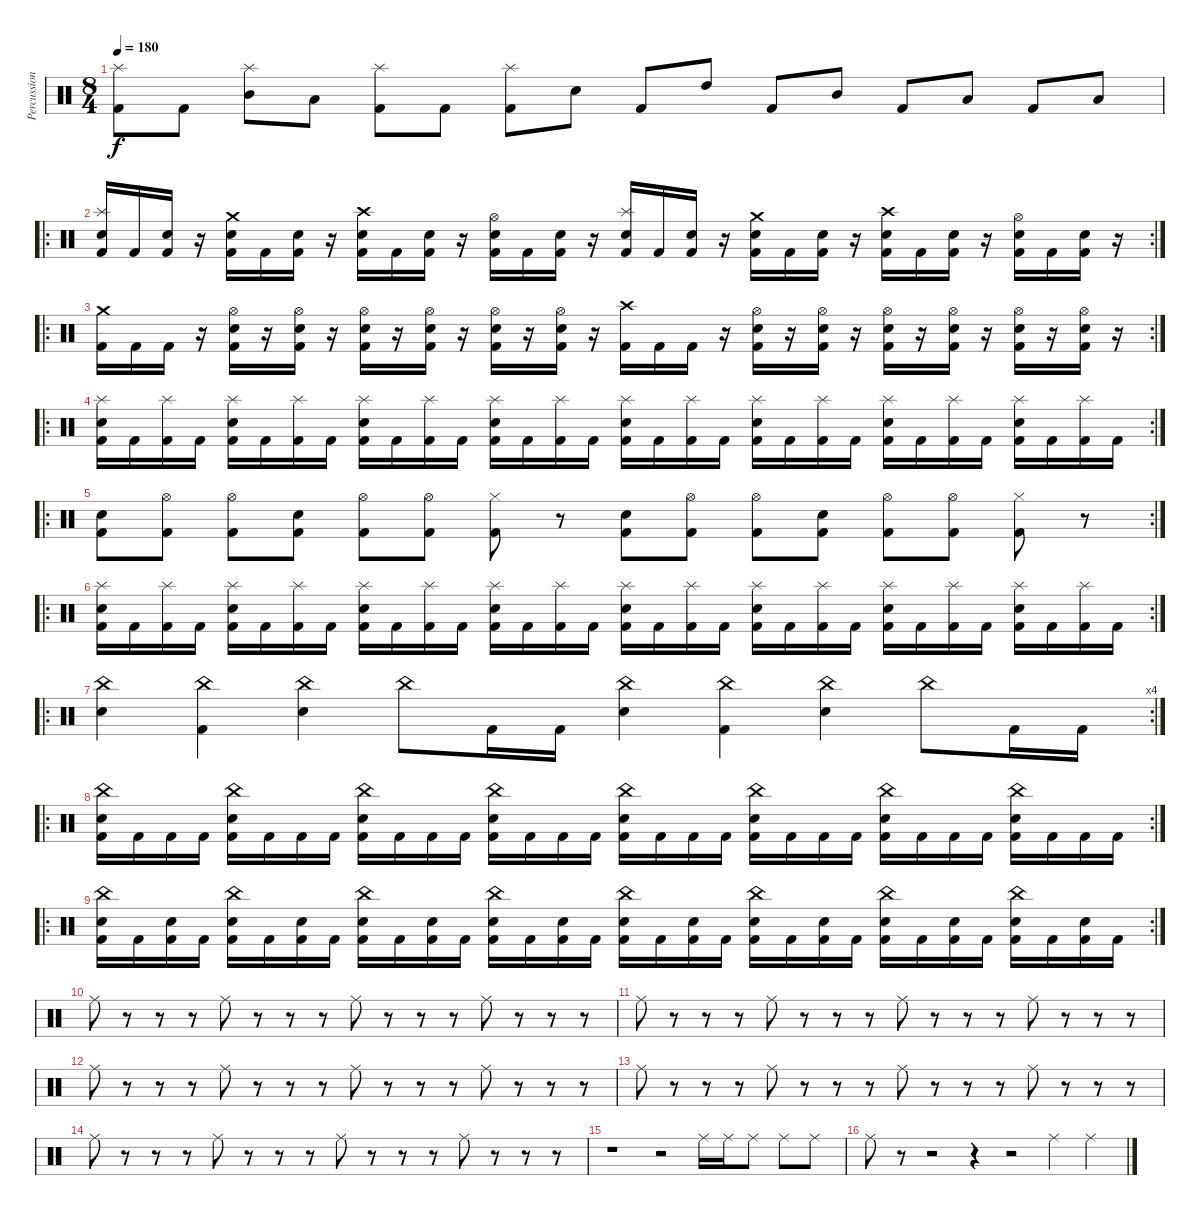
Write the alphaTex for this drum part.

\track ("Percussion" "Percussion") {instrument percussion}
\staff {score}
\articulation defaults
\ts (8 4)
\tempo 180
\clef neutral
\ks c
("Kick (hit) 2" "Splash (hit)").8{dy f} "Kick (hit) 2".8 ("Mid Tom (hit)" "Splash (hit)").8 "Low Tom (hit)".8 ("Kick (hit) 2" "Splash (hit)").8 "Kick (hit) 2".8 ("Kick (hit) 2" "Splash (hit)").8 "Electric Snare (hit)".8 "Kick (hit) 2".8 "High Tom (hit)".8 "Kick (hit) 2".8 "Mid Tom (hit)".8 "Kick (hit) 2".8 "Low Tom (hit)".8 "Kick (hit) 2".8 "Low Floor Tom (hit)".8 |
\ro
\rc 2
("Kick (hit) 2" "Electric Snare (hit)" "Splash (hit)").16 "Kick (hit) 2".16 ("Kick (hit) 2" "Electric Snare (hit)").16 r.16 ("Kick (hit) 2" "Electric Snare (hit)" "Crash medium (hit)").16 "Kick (hit) 2".16 ("Kick (hit) 2" "Electric Snare (hit)").16 r.16 ("Kick (hit) 2" "Electric Snare (hit)" "Crash high (hit)").16 "Kick (hit) 2".16 ("Kick (hit) 2" "Electric Snare (hit)").16 r.16 ("Kick (hit) 2" "Electric Snare (hit)" "Hi-Hat (open)").16 "Kick (hit) 2".16 ("Kick (hit) 2" "Electric Snare (hit)").16 r.16 ("Kick (hit) 2" "Electric Snare (hit)" "Splash (hit)").16 "Kick (hit) 2".16 ("Kick (hit) 2" "Electric Snare (hit)").16 r.16 ("Kick (hit) 2" "Electric Snare (hit)" "Crash medium (hit)").16 "Kick (hit) 2".16 ("Kick (hit) 2" "Electric Snare (hit)").16 r.16 ("Kick (hit) 2" "Electric Snare (hit)" "Crash high (hit)").16 "Kick (hit) 2".16 ("Kick (hit) 2" "Electric Snare (hit)").16 r.16 ("Kick (hit) 2" "Electric Snare (hit)" "Hi-Hat (open)").16 "Kick (hit) 2".16 ("Kick (hit) 2" "Electric Snare (hit)").16 r.16 |
\ro
\rc 2
("Kick (hit) 2" "Crash medium (hit)").16 "Kick (hit) 2".16 "Kick (hit) 2".16 r.16 ("Kick (hit) 2" "Hi-Hat (open)" "Electric Snare (hit)").16 r.16 ("Kick (hit) 2" "Hi-Hat (open)" "Electric Snare (hit)").16 r.16 ("Kick (hit) 2" "Hi-Hat (open)" "Electric Snare (hit)").16 r.16 ("Kick (hit) 2" "Hi-Hat (open)" "Electric Snare (hit)").16 r.16 ("Kick (hit) 2" "Hi-Hat (open)" "Electric Snare (hit)").16 r.16 ("Kick (hit) 2" "Hi-Hat (open)" "Electric Snare (hit)").16 r.16 ("Kick (hit) 2" "Crash high (hit)").16 "Kick (hit) 2".16 "Kick (hit) 2".16 r.16 ("Kick (hit) 2" "Hi-Hat (open)" "Electric Snare (hit)").16 r.16 ("Kick (hit) 2" "Hi-Hat (open)" "Electric Snare (hit)").16 r.16 ("Kick (hit) 2" "Hi-Hat (open)" "Electric Snare (hit)").16 r.16 ("Kick (hit) 2" "Hi-Hat (open)" "Electric Snare (hit)").16 r.16 ("Kick (hit) 2" "Hi-Hat (open)" "Electric Snare (hit)").16 r.16 ("Kick (hit) 2" "Hi-Hat (open)" "Electric Snare (hit)").16 r.16 |
\ro
\rc 2
("Kick (hit) 2" "Electric Snare (hit)" "Splash (hit)").16 "Kick (hit) 2".16 ("Kick (hit) 2" "Splash (hit)").16 "Kick (hit) 2".16 ("Kick (hit) 2" "Electric Snare (hit)" "Splash (hit)").16 "Kick (hit) 2".16 ("Kick (hit) 2" "Splash (hit)").16 "Kick (hit) 2".16 ("Kick (hit) 2" "Electric Snare (hit)" "Splash (hit)").16 "Kick (hit) 2".16 ("Kick (hit) 2" "Splash (hit)").16 "Kick (hit) 2".16 ("Kick (hit) 2" "Electric Snare (hit)" "Splash (hit)").16 "Kick (hit) 2".16 ("Kick (hit) 2" "Splash (hit)").16 "Kick (hit) 2".16 ("Kick (hit) 2" "Electric Snare (hit)" "Splash (hit)").16 "Kick (hit) 2".16 ("Kick (hit) 2" "Splash (hit)").16 "Kick (hit) 2".16 ("Kick (hit) 2" "Electric Snare (hit)" "Splash (hit)").16 "Kick (hit) 2".16 ("Kick (hit) 2" "Splash (hit)").16 "Kick (hit) 2".16 ("Kick (hit) 2" "Electric Snare (hit)" "Splash (hit)").16 "Kick (hit) 2".16 ("Kick (hit) 2" "Splash (hit)").16 "Kick (hit) 2".16 ("Kick (hit) 2" "Electric Snare (hit)" "Splash (hit)").16 "Kick (hit) 2".16 ("Kick (hit) 2" "Splash (hit)").16 "Kick (hit) 2".16 |
\ro
\rc 2
("Kick (hit) 2" "Electric Snare (hit)").8 ("Kick (hit) 2" "Hi-Hat (open)").8 ("Kick (hit) 2" "Hi-Hat (open)").8 ("Kick (hit) 2" "Electric Snare (hit)").8 ("Kick (hit) 2" "Hi-Hat (open)").8 ("Kick (hit) 2" "Hi-Hat (open)").8 ("Kick (hit) 2" "Hi-Hat (closed)").8 r.8 ("Kick (hit) 2" "Electric Snare (hit)").8 ("Kick (hit) 2" "Hi-Hat (open)").8 ("Kick (hit) 2" "Hi-Hat (open)").8 ("Kick (hit) 2" "Electric Snare (hit)").8 ("Kick (hit) 2" "Hi-Hat (open)").8 ("Kick (hit) 2" "Hi-Hat (open)").8 ("Kick (hit) 2" "Hi-Hat (closed)").8 r.8 |
\ro
\rc 2
("Kick (hit) 2" "Electric Snare (hit)" "Splash (hit)").16 "Kick (hit) 2".16 ("Kick (hit) 2" "Splash (hit)").16 "Kick (hit) 2".16 ("Kick (hit) 2" "Electric Snare (hit)" "Splash (hit)").16 "Kick (hit) 2".16 ("Kick (hit) 2" "Splash (hit)").16 "Kick (hit) 2".16 ("Kick (hit) 2" "Electric Snare (hit)" "Splash (hit)").16 "Kick (hit) 2".16 ("Kick (hit) 2" "Splash (hit)").16 "Kick (hit) 2".16 ("Kick (hit) 2" "Electric Snare (hit)" "Splash (hit)").16 "Kick (hit) 2".16 ("Kick (hit) 2" "Splash (hit)").16 "Kick (hit) 2".16 ("Kick (hit) 2" "Electric Snare (hit)" "Splash (hit)").16 "Kick (hit) 2".16 ("Kick (hit) 2" "Splash (hit)").16 "Kick (hit) 2".16 ("Kick (hit) 2" "Electric Snare (hit)" "Splash (hit)").16 "Kick (hit) 2".16 ("Kick (hit) 2" "Splash (hit)").16 "Kick (hit) 2".16 ("Kick (hit) 2" "Electric Snare (hit)" "Splash (hit)").16 "Kick (hit) 2".16 ("Kick (hit) 2" "Splash (hit)").16 "Kick (hit) 2".16 ("Kick (hit) 2" "Electric Snare (hit)" "Splash (hit)").16 "Kick (hit) 2".16 ("Kick (hit) 2" "Splash (hit)").16 "Kick (hit) 2".16 |
\ro
\rc 4
("Electric Snare (hit)" "China (hit)").4 ("Kick (hit) 2" "China (hit)").4 ("Electric Snare (hit)" "China (hit)").4 "China (hit)".8 "Kick (hit) 2".16 "Kick (hit) 2".16 ("Electric Snare (hit)" "China (hit)").4 ("Kick (hit) 2" "China (hit)").4 ("Electric Snare (hit)" "China (hit)").4 "China (hit)".8 "Kick (hit) 2".16 "Kick (hit) 2".16 |
\ro
\rc 2
("Kick (hit) 2" "Electric Snare (hit)" "China (hit)").16 "Kick (hit) 2".16 "Kick (hit) 2".16 "Kick (hit) 2".16 ("Kick (hit) 2" "Electric Snare (hit)" "China (hit)").16 "Kick (hit) 2".16 "Kick (hit) 2".16 "Kick (hit) 2".16 ("Kick (hit) 2" "Electric Snare (hit)" "China (hit)").16 "Kick (hit) 2".16 "Kick (hit) 2".16 "Kick (hit) 2".16 ("Kick (hit) 2" "Electric Snare (hit)" "China (hit)").16 "Kick (hit) 2".16 "Kick (hit) 2".16 "Kick (hit) 2".16 ("Kick (hit) 2" "Electric Snare (hit)" "China (hit)").16 "Kick (hit) 2".16 "Kick (hit) 2".16 "Kick (hit) 2".16 ("Kick (hit) 2" "Electric Snare (hit)" "China (hit)").16 "Kick (hit) 2".16 "Kick (hit) 2".16 "Kick (hit) 2".16 ("Kick (hit) 2" "Electric Snare (hit)" "China (hit)").16 "Kick (hit) 2".16 "Kick (hit) 2".16 "Kick (hit) 2".16 ("Kick (hit) 2" "Electric Snare (hit)" "China (hit)").16 "Kick (hit) 2".16 "Kick (hit) 2".16 "Kick (hit) 2".16 |
\ro
\rc 2
("Kick (hit) 2" "Electric Snare (hit)" "China (hit)").16 "Kick (hit) 2".16 ("Kick (hit) 2" "Electric Snare (hit)").16 "Kick (hit) 2".16 ("Kick (hit) 2" "Electric Snare (hit)" "China (hit)").16 "Kick (hit) 2".16 ("Kick (hit) 2" "Electric Snare (hit)").16 "Kick (hit) 2".16 ("Kick (hit) 2" "Electric Snare (hit)" "China (hit)").16 "Kick (hit) 2".16 ("Kick (hit) 2" "Electric Snare (hit)").16 "Kick (hit) 2".16 ("Kick (hit) 2" "Electric Snare (hit)" "China (hit)").16 "Kick (hit) 2".16 ("Kick (hit) 2" "Electric Snare (hit)").16 "Kick (hit) 2".16 ("Kick (hit) 2" "Electric Snare (hit)" "China (hit)").16 "Kick (hit) 2".16 ("Kick (hit) 2" "Electric Snare (hit)").16 "Kick (hit) 2".16 ("Kick (hit) 2" "Electric Snare (hit)" "China (hit)").16 "Kick (hit) 2".16 ("Kick (hit) 2" "Electric Snare (hit)").16 "Kick (hit) 2".16 ("Kick (hit) 2" "Electric Snare (hit)" "China (hit)").16 "Kick (hit) 2".16 ("Kick (hit) 2" "Electric Snare (hit)").16 "Kick (hit) 2".16 ("Kick (hit) 2" "Electric Snare (hit)" "China (hit)").16 "Kick (hit) 2".16 ("Kick (hit) 2" "Electric Snare (hit)").16 "Kick (hit) 2".16 |
"Ride (middle)".8 r.8 r.8 r.8 "Ride (middle)".8 r.8 r.8 r.8 "Ride (middle)".8 r.8 r.8 r.8 "Ride (middle)".8 r.8 r.8 r.8 |
"Ride (middle)".8 r.8 r.8 r.8 "Ride (middle)".8 r.8 r.8 r.8 "Ride (middle)".8 r.8 r.8 r.8 "Ride (middle)".8 r.8 r.8 r.8 |
"Ride (middle)".8 r.8 r.8 r.8 "Ride (middle)".8 r.8 r.8 r.8 "Ride (middle)".8 r.8 r.8 r.8 "Ride (middle)".8 r.8 r.8 r.8 |
"Ride (middle)".8 r.8 r.8 r.8 "Ride (middle)".8 r.8 r.8 r.8 "Ride (middle)".8 r.8 r.8 r.8 "Ride (middle)".8 r.8 r.8 r.8 |
"Ride (middle)".8 r.8 r.8 r.8 "Ride (middle)".8 r.8 r.8 r.8 "Ride (middle)".8 r.8 r.8 r.8 "Ride (middle)".8 r.8 r.8 r.8 |
r.1 r.2 "Ride (middle)".16 "Ride (middle)".16 "Ride (middle)".8 "Ride (middle)".8 "Ride (middle)".8 |
"Ride (middle)".8 r.8 r.2 r.4 r.2 "Ride (middle)".4 "Ride (middle)".4
